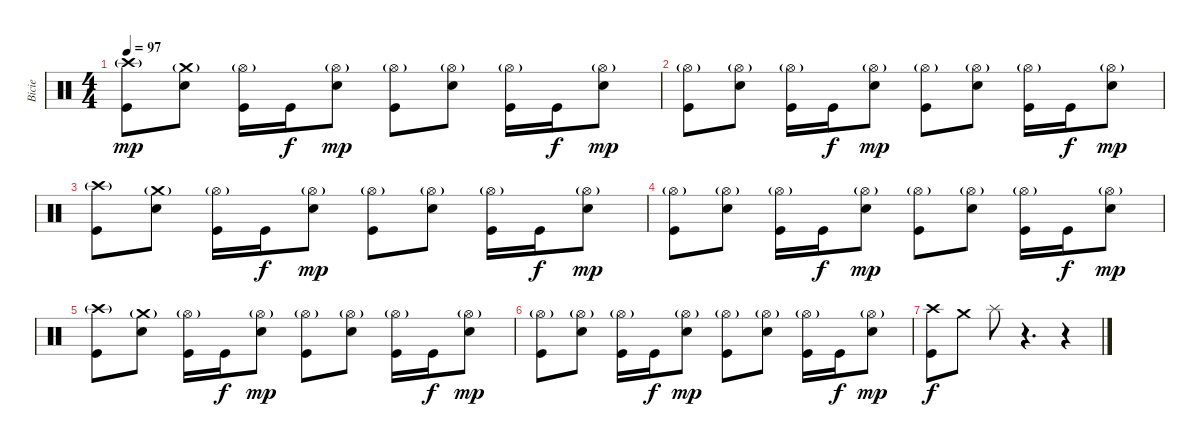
\track ("Bicie" "Bicie") {instrument percussion}
\staff {score}
\articulation defaults
\ts (4 4)
\tempo 97
\clef neutral
\ks c
("Crash high (hit)"{g} "Kick (hit)").8{dy mp} ("Crash medium (hit)"{g} "Electric Snare (hit)").8 ("Hi-Hat (open)"{g} "Kick (hit)").16 "Kick (hit)".16{dy f} ("Hi-Hat (open)"{g} "Electric Snare (hit)").8{dy mp} ("Hi-Hat (open)"{g} "Kick (hit)").8 ("Hi-Hat (open)"{g} "Electric Snare (hit)").8 ("Hi-Hat (open)"{g} "Kick (hit)").16 "Kick (hit)".16{dy f} ("Hi-Hat (open)"{g} "Electric Snare (hit)").8{dy mp} |
("Hi-Hat (open)"{g} "Kick (hit)").8 ("Hi-Hat (open)"{g} "Electric Snare (hit)").8 ("Hi-Hat (open)"{g} "Kick (hit)").16 "Kick (hit)".16{dy f} ("Hi-Hat (open)"{g} "Electric Snare (hit)").8{dy mp} ("Hi-Hat (open)"{g} "Kick (hit)").8 ("Hi-Hat (open)"{g} "Electric Snare (hit)").8 ("Hi-Hat (open)"{g} "Kick (hit)").16 "Kick (hit)".16{dy f} ("Hi-Hat (open)"{g} "Electric Snare (hit)").8{dy mp} |
("Crash high (hit)"{g} "Kick (hit)").8 ("Crash medium (hit)"{g} "Electric Snare (hit)").8 ("Hi-Hat (open)"{g} "Kick (hit)").16 "Kick (hit)".16{dy f} ("Hi-Hat (open)"{g} "Electric Snare (hit)").8{dy mp} ("Hi-Hat (open)"{g} "Kick (hit)").8 ("Hi-Hat (open)"{g} "Electric Snare (hit)").8 ("Hi-Hat (open)"{g} "Kick (hit)").16 "Kick (hit)".16{dy f} ("Hi-Hat (open)"{g} "Electric Snare (hit)").8{dy mp} |
("Hi-Hat (open)"{g} "Kick (hit)").8 ("Hi-Hat (open)"{g} "Electric Snare (hit)").8 ("Hi-Hat (open)"{g} "Kick (hit)").16 "Kick (hit)".16{dy f} ("Hi-Hat (open)"{g} "Electric Snare (hit)").8{dy mp} ("Hi-Hat (open)"{g} "Kick (hit)").8 ("Hi-Hat (open)"{g} "Electric Snare (hit)").8 ("Hi-Hat (open)"{g} "Kick (hit)").16 "Kick (hit)".16{dy f} ("Hi-Hat (open)"{g} "Electric Snare (hit)").8{dy mp} |
("Crash high (hit)"{g} "Kick (hit)").8 ("Crash medium (hit)"{g} "Electric Snare (hit)").8 ("Hi-Hat (open)"{g} "Kick (hit)").16 "Kick (hit)".16{dy f} ("Hi-Hat (open)"{g} "Electric Snare (hit)").8{dy mp} ("Hi-Hat (open)"{g} "Kick (hit)").8 ("Hi-Hat (open)"{g} "Electric Snare (hit)").8 ("Hi-Hat (open)"{g} "Kick (hit)").16 "Kick (hit)".16{dy f} ("Hi-Hat (open)"{g} "Electric Snare (hit)").8{dy mp} |
("Hi-Hat (open)"{g} "Kick (hit)").8 ("Hi-Hat (open)"{g} "Electric Snare (hit)").8 ("Hi-Hat (open)"{g} "Kick (hit)").16 "Kick (hit)".16{dy f} ("Hi-Hat (open)"{g} "Electric Snare (hit)").8{dy mp} ("Hi-Hat (open)"{g} "Kick (hit)").8 ("Hi-Hat (open)"{g} "Electric Snare (hit)").8 ("Hi-Hat (open)"{g} "Kick (hit)").16 "Kick (hit)".16{dy f} ("Hi-Hat (open)"{g} "Electric Snare (hit)").8{dy mp} |
("Crash high (hit)" "Kick (hit)").8{dy f} "Crash medium (hit)".8 "Splash (hit)".8 r.4{d} r.4
